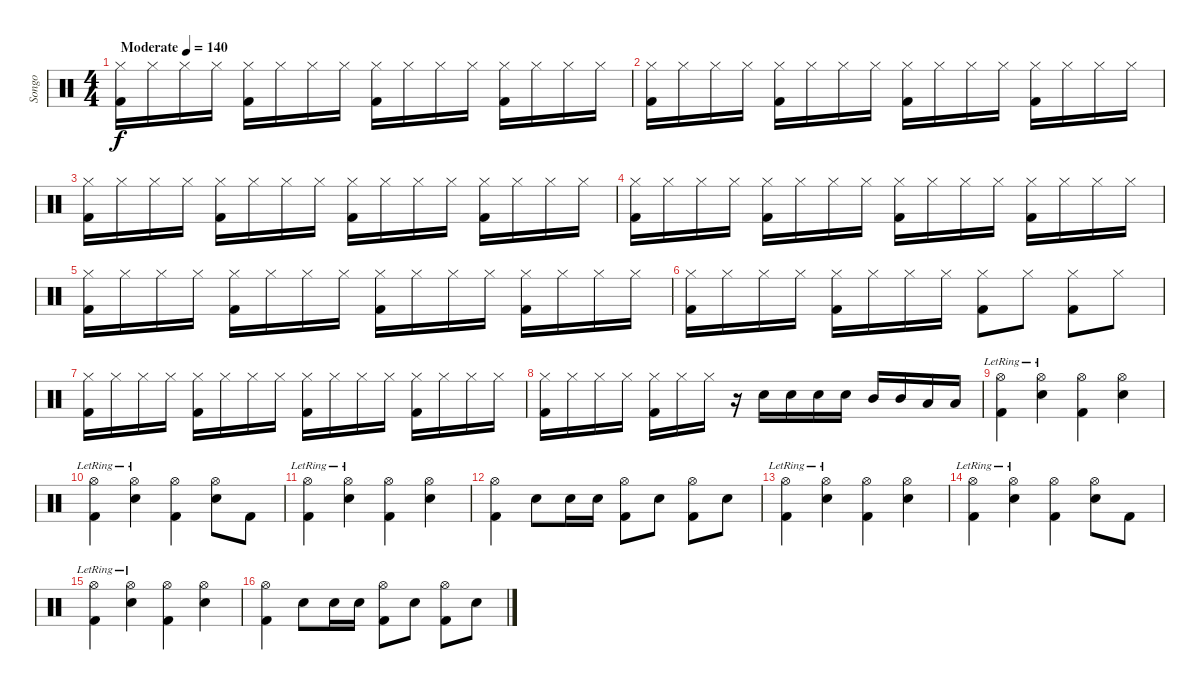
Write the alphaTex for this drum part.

\track ("Songo" "Songo") {instrument percussion}
\staff {score}
\articulation defaults
\ts (4 4)
\tempo (140 "Moderate")
\clef neutral
\ks c
("Hi-Hat (closed)" "Kick (hit) 2").16{dy f} "Hi-Hat (closed)".16 "Hi-Hat (closed)".16 "Hi-Hat (closed)".16 ("Hi-Hat (closed)" "Kick (hit) 2").16 "Hi-Hat (closed)".16 "Hi-Hat (closed)".16 "Hi-Hat (closed)".16 ("Hi-Hat (closed)" "Kick (hit) 2").16 "Hi-Hat (closed)".16 "Hi-Hat (closed)".16 "Hi-Hat (closed)".16 ("Hi-Hat (closed)" "Kick (hit) 2").16 "Hi-Hat (closed)".16 "Hi-Hat (closed)".16 "Hi-Hat (closed)".16 |
("Hi-Hat (closed)" "Kick (hit) 2").16 "Hi-Hat (closed)".16 "Hi-Hat (closed)".16 "Hi-Hat (closed)".16 ("Hi-Hat (closed)" "Kick (hit) 2").16 "Hi-Hat (closed)".16 "Hi-Hat (closed)".16 "Hi-Hat (closed)".16 ("Hi-Hat (closed)" "Kick (hit) 2").16 "Hi-Hat (closed)".16 "Hi-Hat (closed)".16 "Hi-Hat (closed)".16 ("Hi-Hat (closed)" "Kick (hit) 2").16 "Hi-Hat (closed)".16 "Hi-Hat (closed)".16 "Hi-Hat (closed)".16 |
("Hi-Hat (closed)" "Kick (hit) 2").16 "Hi-Hat (closed)".16 "Hi-Hat (closed)".16 "Hi-Hat (closed)".16 ("Hi-Hat (closed)" "Kick (hit) 2").16 "Hi-Hat (closed)".16 "Hi-Hat (closed)".16 "Hi-Hat (closed)".16 ("Hi-Hat (closed)" "Kick (hit) 2").16 "Hi-Hat (closed)".16 "Hi-Hat (closed)".16 "Hi-Hat (closed)".16 ("Hi-Hat (closed)" "Kick (hit) 2").16 "Hi-Hat (closed)".16 "Hi-Hat (closed)".16 "Hi-Hat (closed)".16 |
("Hi-Hat (closed)" "Kick (hit) 2").16 "Hi-Hat (closed)".16 "Hi-Hat (closed)".16 "Hi-Hat (closed)".16 ("Hi-Hat (closed)" "Kick (hit) 2").16 "Hi-Hat (closed)".16 "Hi-Hat (closed)".16 "Hi-Hat (closed)".16 ("Hi-Hat (closed)" "Kick (hit) 2").16 "Hi-Hat (closed)".16 "Hi-Hat (closed)".16 "Hi-Hat (closed)".16 ("Hi-Hat (closed)" "Kick (hit) 2").16 "Hi-Hat (closed)".16 "Hi-Hat (closed)".16 "Hi-Hat (closed)".16 |
("Hi-Hat (closed)" "Kick (hit) 2").16 "Hi-Hat (closed)".16 "Hi-Hat (closed)".16 "Hi-Hat (closed)".16 ("Hi-Hat (closed)" "Kick (hit) 2").16 "Hi-Hat (closed)".16 "Hi-Hat (closed)".16 "Hi-Hat (closed)".16 ("Hi-Hat (closed)" "Kick (hit) 2").16 "Hi-Hat (closed)".16 "Hi-Hat (closed)".16 "Hi-Hat (closed)".16 ("Hi-Hat (closed)" "Kick (hit) 2").16 "Hi-Hat (closed)".16 "Hi-Hat (closed)".16 "Hi-Hat (closed)".16 |
("Hi-Hat (closed)" "Kick (hit) 2").16 "Hi-Hat (closed)".16 "Hi-Hat (closed)".16 "Hi-Hat (closed)".16 ("Hi-Hat (closed)" "Kick (hit) 2").16 "Hi-Hat (closed)".16 "Hi-Hat (closed)".16 "Hi-Hat (closed)".16 ("Hi-Hat (closed)" "Kick (hit) 2").8 "Hi-Hat (closed)".8 ("Hi-Hat (closed)" "Kick (hit) 2").8 "Hi-Hat (closed)".8 |
("Hi-Hat (closed)" "Kick (hit) 2").16 "Hi-Hat (closed)".16 "Hi-Hat (closed)".16 "Hi-Hat (closed)".16 ("Hi-Hat (closed)" "Kick (hit) 2").16 "Hi-Hat (closed)".16 "Hi-Hat (closed)".16 "Hi-Hat (closed)".16 ("Hi-Hat (closed)" "Kick (hit) 2").16 "Hi-Hat (closed)".16 "Hi-Hat (closed)".16 "Hi-Hat (closed)".16 ("Hi-Hat (closed)" "Kick (hit) 2").16 "Hi-Hat (closed)".16 "Hi-Hat (closed)".16 "Hi-Hat (closed)".16 |
("Hi-Hat (closed)" "Kick (hit) 2").16 "Hi-Hat (closed)".16 "Hi-Hat (closed)".16 "Hi-Hat (closed)".16 ("Hi-Hat (closed)" "Kick (hit) 2").16 "Hi-Hat (closed)".16 "Hi-Hat (closed)".16 r.16 "Electric Snare (hit)".16 "Electric Snare (hit)".16 "Electric Snare (hit)".16 "Electric Snare (hit)".16 "Mid Tom (hit)".16 "Mid Tom (hit)".16 "Low Tom (hit)".16 "Low Tom (hit)".16 |
("Hi-Hat (open)"{lr} "Kick (hit) 2").4 ("Hi-Hat (open)"{lr} "Electric Snare (hit)").4 ("Hi-Hat (open)" "Kick (hit) 2").4 ("Hi-Hat (open)" "Electric Snare (hit)").4 |
("Hi-Hat (open)"{lr} "Kick (hit) 2").4 ("Hi-Hat (open)"{lr} "Electric Snare (hit)").4 ("Hi-Hat (open)" "Kick (hit) 2").4 ("Hi-Hat (open)" "Electric Snare (hit)").8 "Kick (hit) 2".8 |
("Hi-Hat (open)"{lr} "Kick (hit) 2").4 ("Hi-Hat (open)"{lr} "Electric Snare (hit)").4 ("Hi-Hat (open)" "Kick (hit) 2").4 ("Hi-Hat (open)" "Electric Snare (hit)").4 |
("Hi-Hat (open)" "Kick (hit) 2").4 "Electric Snare (hit)".8 "Electric Snare (hit)".16 "Electric Snare (hit)".16 ("Hi-Hat (open)" "Kick (hit) 2").8 "Electric Snare (hit)".8 ("Hi-Hat (open)" "Kick (hit) 2").8 "Electric Snare (hit)".8 |
("Hi-Hat (open)"{lr} "Kick (hit) 2").4 ("Hi-Hat (open)"{lr} "Electric Snare (hit)").4 ("Hi-Hat (open)" "Kick (hit) 2").4 ("Hi-Hat (open)" "Electric Snare (hit)").4 |
("Hi-Hat (open)"{lr} "Kick (hit) 2").4 ("Hi-Hat (open)"{lr} "Electric Snare (hit)").4 ("Hi-Hat (open)" "Kick (hit) 2").4 ("Hi-Hat (open)" "Electric Snare (hit)").8 "Kick (hit) 2".8 |
("Hi-Hat (open)"{lr} "Kick (hit) 2").4 ("Hi-Hat (open)"{lr} "Electric Snare (hit)").4 ("Hi-Hat (open)" "Kick (hit) 2").4 ("Hi-Hat (open)" "Electric Snare (hit)").4 |
("Hi-Hat (open)" "Kick (hit) 2").4 "Electric Snare (hit)".8 "Electric Snare (hit)".16 "Electric Snare (hit)".16 ("Hi-Hat (open)" "Kick (hit) 2").8 "Electric Snare (hit)".8 ("Hi-Hat (open)" "Kick (hit) 2").8 "Electric Snare (hit)".8
